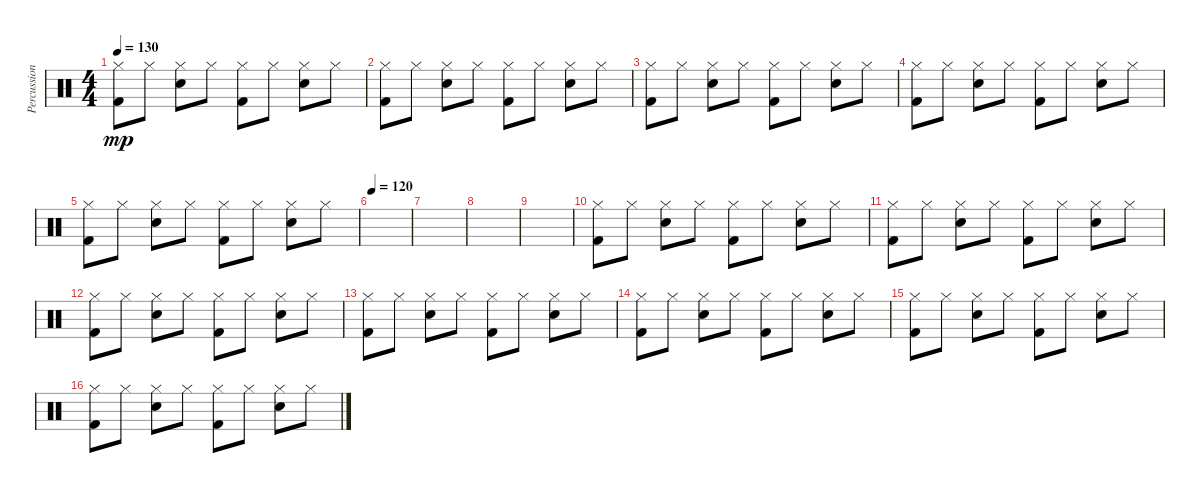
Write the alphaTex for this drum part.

\track ("Percussion" "Percussion") {instrument percussion}
\staff {score}
\articulation defaults
\ts (4 4)
\tempo 130
\clef neutral
\ks c
("Hi-Hat (closed)" "Kick (hit) 2").8{dy mp} "Hi-Hat (closed)".8 ("Hi-Hat (closed)" "Snare (hit) 2").8 "Hi-Hat (closed)".8 ("Hi-Hat (closed)" "Kick (hit) 2").8 "Hi-Hat (closed)".8 ("Hi-Hat (closed)" "Snare (hit) 2").8 "Hi-Hat (closed)".8 |
("Hi-Hat (closed)" "Kick (hit) 2").8 "Hi-Hat (closed)".8 ("Hi-Hat (closed)" "Snare (hit) 2").8 "Hi-Hat (closed)".8 ("Hi-Hat (closed)" "Kick (hit) 2").8 "Hi-Hat (closed)".8 ("Hi-Hat (closed)" "Snare (hit) 2").8 "Hi-Hat (closed)".8 |
("Hi-Hat (closed)" "Kick (hit) 2").8 "Hi-Hat (closed)".8 ("Hi-Hat (closed)" "Snare (hit) 2").8 "Hi-Hat (closed)".8 ("Hi-Hat (closed)" "Kick (hit) 2").8 "Hi-Hat (closed)".8 ("Hi-Hat (closed)" "Snare (hit) 2").8 "Hi-Hat (closed)".8 |
("Hi-Hat (closed)" "Kick (hit) 2").8 "Hi-Hat (closed)".8 ("Hi-Hat (closed)" "Snare (hit) 2").8 "Hi-Hat (closed)".8 ("Hi-Hat (closed)" "Kick (hit) 2").8 "Hi-Hat (closed)".8 ("Hi-Hat (closed)" "Snare (hit) 2").8 "Hi-Hat (closed)".8 |
("Hi-Hat (closed)" "Kick (hit) 2").8 "Hi-Hat (closed)".8 ("Hi-Hat (closed)" "Snare (hit) 2").8 "Hi-Hat (closed)".8 ("Hi-Hat (closed)" "Kick (hit) 2").8 "Hi-Hat (closed)".8 ("Hi-Hat (closed)" "Snare (hit) 2").8 "Hi-Hat (closed)".8 |
\tempo 120
|
|
|
|
("Hi-Hat (closed)" "Kick (hit) 2").8 "Hi-Hat (closed)".8 ("Hi-Hat (closed)" "Snare (hit) 2").8 "Hi-Hat (closed)".8 ("Hi-Hat (closed)" "Kick (hit) 2").8 "Hi-Hat (closed)".8 ("Hi-Hat (closed)" "Snare (hit) 2").8 "Hi-Hat (closed)".8 |
("Hi-Hat (closed)" "Kick (hit) 2").8 "Hi-Hat (closed)".8 ("Hi-Hat (closed)" "Snare (hit) 2").8 "Hi-Hat (closed)".8 ("Hi-Hat (closed)" "Kick (hit) 2").8 "Hi-Hat (closed)".8 ("Hi-Hat (closed)" "Snare (hit) 2").8 "Hi-Hat (closed)".8 |
("Hi-Hat (closed)" "Kick (hit) 2").8 "Hi-Hat (closed)".8 ("Hi-Hat (closed)" "Snare (hit) 2").8 "Hi-Hat (closed)".8 ("Hi-Hat (closed)" "Kick (hit) 2").8 "Hi-Hat (closed)".8 ("Hi-Hat (closed)" "Snare (hit) 2").8 "Hi-Hat (closed)".8 |
("Hi-Hat (closed)" "Kick (hit) 2").8 "Hi-Hat (closed)".8 ("Hi-Hat (closed)" "Snare (hit) 2").8 "Hi-Hat (closed)".8 ("Hi-Hat (closed)" "Kick (hit) 2").8 "Hi-Hat (closed)".8 ("Hi-Hat (closed)" "Snare (hit) 2").8 "Hi-Hat (closed)".8 |
("Hi-Hat (closed)" "Kick (hit) 2").8 "Hi-Hat (closed)".8 ("Hi-Hat (closed)" "Snare (hit) 2").8 "Hi-Hat (closed)".8 ("Hi-Hat (closed)" "Kick (hit) 2").8 "Hi-Hat (closed)".8 ("Hi-Hat (closed)" "Snare (hit) 2").8 "Hi-Hat (closed)".8 |
("Hi-Hat (closed)" "Kick (hit) 2").8 "Hi-Hat (closed)".8 ("Hi-Hat (closed)" "Snare (hit) 2").8 "Hi-Hat (closed)".8 ("Hi-Hat (closed)" "Kick (hit) 2").8 "Hi-Hat (closed)".8 ("Hi-Hat (closed)" "Snare (hit) 2").8 "Hi-Hat (closed)".8 |
("Hi-Hat (closed)" "Kick (hit) 2").8 "Hi-Hat (closed)".8 ("Hi-Hat (closed)" "Snare (hit) 2").8 "Hi-Hat (closed)".8 ("Hi-Hat (closed)" "Kick (hit) 2").8 "Hi-Hat (closed)".8 ("Hi-Hat (closed)" "Snare (hit) 2").8 "Hi-Hat (closed)".8
